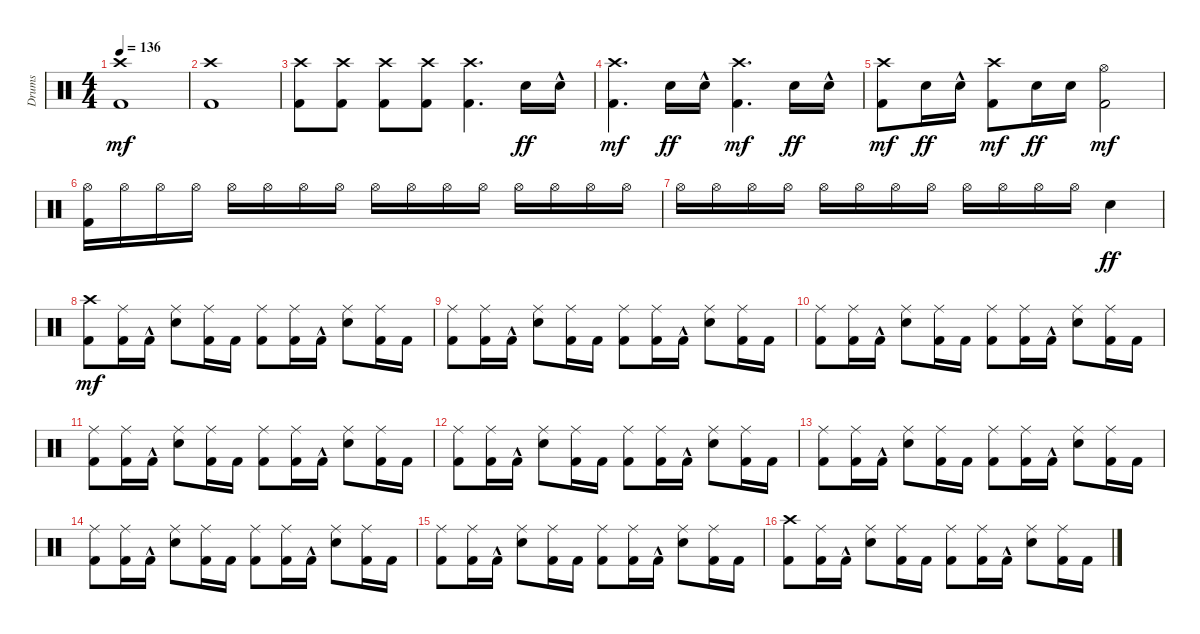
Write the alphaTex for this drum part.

\track ("Drums" "Drums") {instrument percussion}
\staff {score}
\articulation defaults
\ts (4 4)
\tempo 136
\clef neutral
\ks c
("Kick (hit) 2" "Crash high (hit)").1{dy mf} |
("Kick (hit) 2" "Crash high (hit)").1 |
("Kick (hit) 2" "Crash high (hit)").8 ("Kick (hit) 2" "Crash high (hit)").8 ("Kick (hit) 2" "Crash high (hit)").8 ("Kick (hit) 2" "Crash high (hit)").8 ("Kick (hit) 2" "Crash high (hit)").4{d} "Snare (hit) 2".16{dy ff} "Snare (hit) 2"{hac}.16 |
("Kick (hit) 2" "Crash high (hit)").4{d dy mf} "Snare (hit) 2".16{dy ff} "Snare (hit) 2"{hac}.16 ("Kick (hit) 2" "Crash high (hit)").4{d dy mf} "Snare (hit) 2".16{dy ff} "Snare (hit) 2"{hac}.16 |
("Kick (hit) 2" "Crash high (hit)").8{dy mf} "Snare (hit) 2".16{dy ff} "Snare (hit) 2"{hac}.16 ("Kick (hit) 2" "Crash high (hit)").8{dy mf} "Snare (hit) 2".16{dy ff} "Snare (hit) 2".16 ("Kick (hit) 2" "Hi-Hat (open)").2{dy mf} |
("Kick (hit) 2" "Hi-Hat (open)").16 "Hi-Hat (open)".16 "Hi-Hat (open)".16 "Hi-Hat (open)".16 "Hi-Hat (open)".16 "Hi-Hat (open)".16 "Hi-Hat (open)".16 "Hi-Hat (open)".16 "Hi-Hat (open)".16 "Hi-Hat (open)".16 "Hi-Hat (open)".16 "Hi-Hat (open)".16 "Hi-Hat (open)".16 "Hi-Hat (open)".16 "Hi-Hat (open)".16 "Hi-Hat (open)".16 |
"Hi-Hat (open)".16 "Hi-Hat (open)".16 "Hi-Hat (open)".16 "Hi-Hat (open)".16 "Hi-Hat (open)".16 "Hi-Hat (open)".16 "Hi-Hat (open)".16 "Hi-Hat (open)".16 "Hi-Hat (open)".16 "Hi-Hat (open)".16 "Hi-Hat (open)".16 "Hi-Hat (open)".16 "Snare (hit) 2".4{dy ff} |
("Kick (hit) 2" "Crash high (hit)").8{dy mf} ("Kick (hit) 2" "Ride (middle)").16 "Kick (hit) 2"{hac}.16 ("Snare (hit) 2" "Ride (middle)").8 ("Kick (hit) 2" "Ride (middle)").16 "Kick (hit) 2".16 ("Kick (hit) 2" "Ride (middle)").8 ("Kick (hit) 2" "Ride (middle)").16 "Kick (hit) 2"{hac}.16 ("Snare (hit) 2" "Ride (middle)").8 ("Kick (hit) 2" "Ride (middle)").16 "Kick (hit) 2".16 |
("Kick (hit) 2" "Ride (middle)").8 ("Kick (hit) 2" "Ride (middle)").16 "Kick (hit) 2"{hac}.16 ("Snare (hit) 2" "Ride (middle)").8 ("Kick (hit) 2" "Ride (middle)").16 "Kick (hit) 2".16 ("Kick (hit) 2" "Ride (middle)").8 ("Kick (hit) 2" "Ride (middle)").16 "Kick (hit) 2"{hac}.16 ("Snare (hit) 2" "Ride (middle)").8 ("Kick (hit) 2" "Ride (middle)").16 "Kick (hit) 2".16 |
("Kick (hit) 2" "Ride (middle)").8 ("Kick (hit) 2" "Ride (middle)").16 "Kick (hit) 2"{hac}.16 ("Snare (hit) 2" "Ride (middle)").8 ("Kick (hit) 2" "Ride (middle)").16 "Kick (hit) 2".16 ("Kick (hit) 2" "Ride (middle)").8 ("Kick (hit) 2" "Ride (middle)").16 "Kick (hit) 2"{hac}.16 ("Snare (hit) 2" "Ride (middle)").8 ("Kick (hit) 2" "Ride (middle)").16 "Kick (hit) 2".16 |
("Kick (hit) 2" "Ride (middle)").8 ("Kick (hit) 2" "Ride (middle)").16 "Kick (hit) 2"{hac}.16 ("Snare (hit) 2" "Ride (middle)").8 ("Kick (hit) 2" "Ride (middle)").16 "Kick (hit) 2".16 ("Kick (hit) 2" "Ride (middle)").8 ("Kick (hit) 2" "Ride (middle)").16 "Kick (hit) 2"{hac}.16 ("Snare (hit) 2" "Ride (middle)").8 ("Kick (hit) 2" "Ride (middle)").16 "Kick (hit) 2".16 |
("Kick (hit) 2" "Ride (middle)").8 ("Kick (hit) 2" "Ride (middle)").16 "Kick (hit) 2"{hac}.16 ("Snare (hit) 2" "Ride (middle)").8 ("Kick (hit) 2" "Ride (middle)").16 "Kick (hit) 2".16 ("Kick (hit) 2" "Ride (middle)").8 ("Kick (hit) 2" "Ride (middle)").16 "Kick (hit) 2"{hac}.16 ("Snare (hit) 2" "Ride (middle)").8 ("Kick (hit) 2" "Ride (middle)").16 "Kick (hit) 2".16 |
("Kick (hit) 2" "Ride (middle)").8 ("Kick (hit) 2" "Ride (middle)").16 "Kick (hit) 2"{hac}.16 ("Snare (hit) 2" "Ride (middle)").8 ("Kick (hit) 2" "Ride (middle)").16 "Kick (hit) 2".16 ("Kick (hit) 2" "Ride (middle)").8 ("Kick (hit) 2" "Ride (middle)").16 "Kick (hit) 2"{hac}.16 ("Snare (hit) 2" "Ride (middle)").8 ("Kick (hit) 2" "Ride (middle)").16 "Kick (hit) 2".16 |
("Kick (hit) 2" "Ride (middle)").8 ("Kick (hit) 2" "Ride (middle)").16 "Kick (hit) 2"{hac}.16 ("Snare (hit) 2" "Ride (middle)").8 ("Kick (hit) 2" "Ride (middle)").16 "Kick (hit) 2".16 ("Kick (hit) 2" "Ride (middle)").8 ("Kick (hit) 2" "Ride (middle)").16 "Kick (hit) 2"{hac}.16 ("Snare (hit) 2" "Ride (middle)").8 ("Kick (hit) 2" "Ride (middle)").16 "Kick (hit) 2".16 |
("Kick (hit) 2" "Ride (middle)").8 ("Kick (hit) 2" "Ride (middle)").16 "Kick (hit) 2"{hac}.16 ("Snare (hit) 2" "Ride (middle)").8 ("Kick (hit) 2" "Ride (middle)").16 "Kick (hit) 2".16 ("Kick (hit) 2" "Ride (middle)").8 ("Kick (hit) 2" "Ride (middle)").16 "Kick (hit) 2"{hac}.16 ("Snare (hit) 2" "Ride (middle)").8 ("Kick (hit) 2" "Ride (middle)").16 "Kick (hit) 2".16 |
("Kick (hit) 2" "Crash high (hit)").8 ("Kick (hit) 2" "Ride (middle)").16 "Kick (hit) 2"{hac}.16 ("Snare (hit) 2" "Ride (middle)").8 ("Kick (hit) 2" "Ride (middle)").16 "Kick (hit) 2".16 ("Kick (hit) 2" "Ride (middle)").8 ("Kick (hit) 2" "Ride (middle)").16 "Kick (hit) 2"{hac}.16 ("Snare (hit) 2" "Ride (middle)").8 ("Kick (hit) 2" "Ride (middle)").16 "Kick (hit) 2".16
